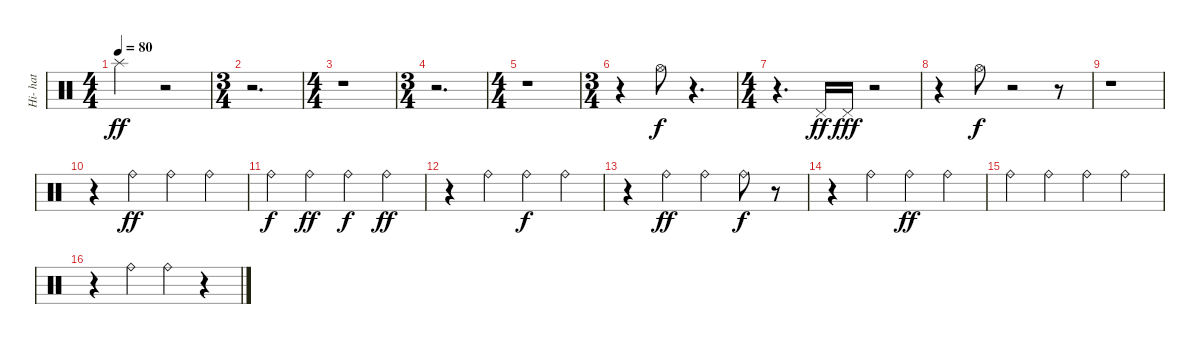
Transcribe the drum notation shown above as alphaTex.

\track ("Hi- hat" "Hi- hat") {instrument percussion}
\staff {score}
\articulation defaults
\ts (4 4)
\tempo 80
\clef neutral
\ks c "Splash (hit)".2{dy ff}
r.2 |
\ts (3 4)
r.2{d} |
\ts (4 4)
r.1 |
\ts (3 4)
r.2{d} |
\ts (4 4)
r.1 |
\ts (3 4)
r.4 "Hi-Hat (open)".8{dy f} r.4{d} |
\ts (4 4)
r.4{d} "Pedal Hi-Hat (hit)".16{dy ff} "Pedal Hi-Hat (hit)".16{dy fff} r.2 |
r.4 "Hi-Hat (open)".8{dy f} r.2 r.8 |
r.1 |
r.4 "Ride (bell)".4{dy ff} "Ride (bell)".4 "Ride (bell)".4 |
"Ride (bell)".4{dy f} "Ride (bell)".4{dy ff} "Ride (bell)".4{dy f} "Ride (bell)".4{dy ff} |
r.4 "Ride (bell)".4 "Ride (bell)".4{dy f} "Ride (bell)".4 |
r.4 "Ride (bell)".4{dy ff} "Ride (bell)".4 "Ride (bell)".8{dy f} r.8 |
r.4 "Ride (bell)".4 "Ride (bell)".4{dy ff} "Ride (bell)".4 |
"Ride (bell)".4 "Ride (bell)".4 "Ride (bell)".4 "Ride (bell)".4 |
r.4 "Ride (bell)".4 "Ride (bell)".4 r.4
